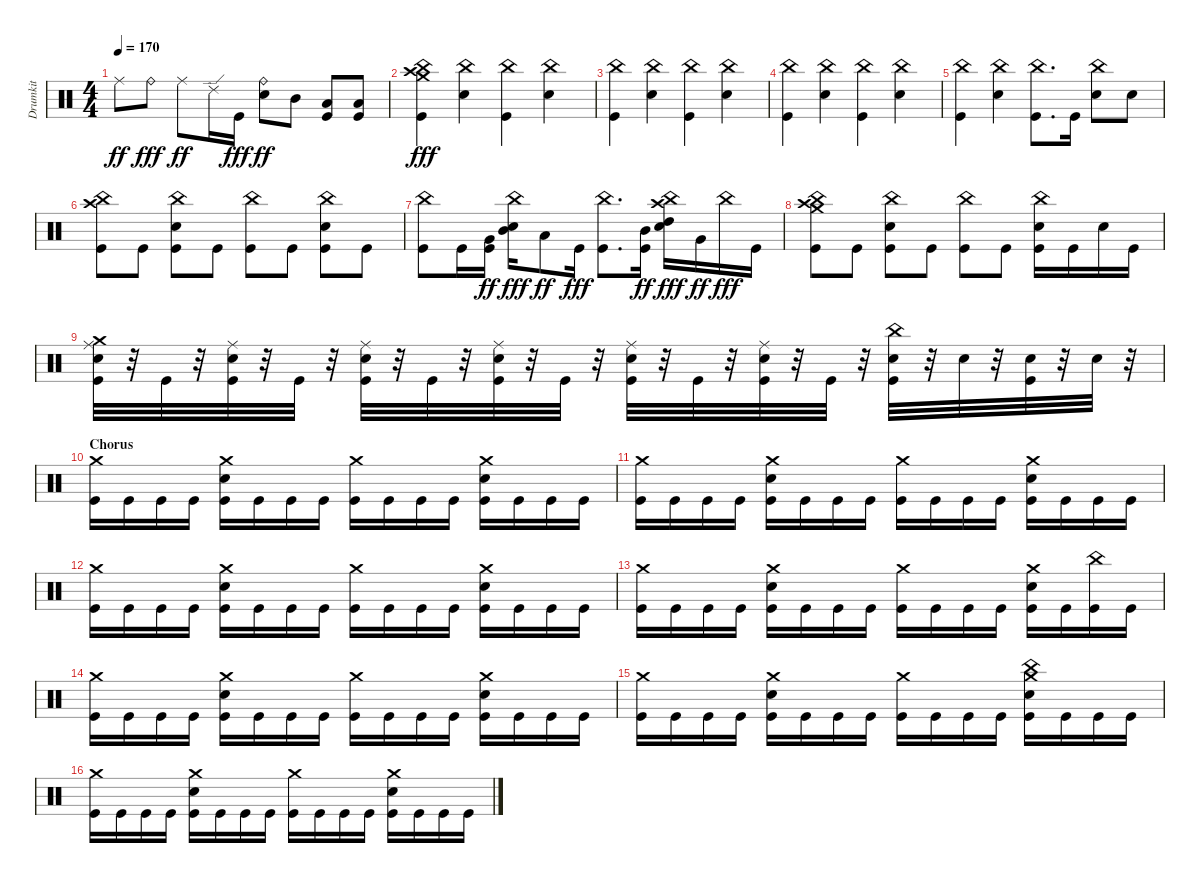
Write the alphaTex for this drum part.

\track ("Drumkit" "Drumkit") {instrument percussion}
\staff {score}
\articulation defaults
\ts (4 4)
\tempo 170
\clef neutral
\ks c "Ride (middle)".8{dy ff} "Ride (bell)".8{dy fff} "Ride (middle)".8{dy ff} "Ride (edge) 2".16 "Kick (hit)".16{dy fff}
("Snare (hit) 2" "Ride (bell)").8{dy ff} "Mid Tom (hit)".8 ("Low Tom (hit)" "Kick (hit)").8 ("Low Tom (hit)" "Kick (hit)").8 |
("China (hit)" "Crash high (hit)" "Crash medium (hit)" "Kick (hit)").4{dy fff} ("China (hit)" "Snare (hit) 2").4 ("China (hit)" "Kick (hit)").4 ("China (hit)" "Snare (hit) 2").4 |
("China (hit)" "Kick (hit)").4 ("China (hit)" "Snare (hit) 2").4 ("China (hit)" "Kick (hit)").4 ("China (hit)" "Snare (hit) 2").4 |
("China (hit)" "Kick (hit)").4 ("China (hit)" "Snare (hit) 2").4 ("China (hit)" "Kick (hit)").4 ("China (hit)" "Snare (hit) 2").4 |
("China (hit)" "Kick (hit)").4 ("China (hit)" "Snare (hit) 2").4 ("China (hit)" "Kick (hit)").8{d} "Kick (hit)".16 ("China (hit)" "Snare (hit) 2").8 "Snare (hit) 2".8 |
("China (hit)" "Crash high (hit)" "Kick (hit)").8 "Kick (hit)".8 ("China (hit)" "Snare (hit) 2" "Kick (hit)").8 "Kick (hit)".8 ("China (hit)" "Kick (hit)").8 "Kick (hit)".8 ("China (hit)" "Snare (hit) 2" "Kick (hit)").8 "Kick (hit)".8 |
("China (hit)" "Kick (hit)").8 "Kick (hit)".16 ("Very Low Tom (hit)" "Kick (hit)").16{dy ff} ("China (hit)" "Mid Tom (hit)" "Snare (hit) 2").16{dy fff} "Low Floor Tom (hit)".8{dy ff} "Kick (hit)".16{dy fff} ("China (hit)" "Kick (hit)").8{d} ("Mid Tom (hit)" "Kick (hit)").16{dy ff} ("China (hit)" "Crash high (hit)" "High Tom (hit)" "Snare (hit) 2").16{dy fff} "Very Low Tom (hit)".16{dy ff} "China (hit)".16{dy fff} "Kick (hit)".16 |
("China (hit)" "Crash high (hit)" "Crash medium (hit)" "Kick (hit)").8 "Kick (hit)".8 ("China (hit)" "Snare (hit) 2" "Kick (hit)").8 "Kick (hit)".8 ("China (hit)" "Kick (hit)").8 "Kick (hit)".8 ("China (hit)" "Snare (hit) 2" "Kick (hit)").16 "Kick (hit)".16 "Snare (hit) 2".16 "Kick (hit)".16 |
("Kick (hit)" "Crash medium (hit)" "Ride (middle)" "Snare (hit) 2").32 r.32 "Kick (hit)".32 r.32 ("Kick (hit)" "Ride (middle)" "Snare (hit) 2").32 r.32 "Kick (hit)".32 r.32 ("Kick (hit)" "Ride (middle)" "Snare (hit) 2").32 r.32 "Kick (hit)".32 r.32 ("Kick (hit)" "Ride (middle)" "Snare (hit) 2").32 r.32 "Kick (hit)".32 r.32 ("Kick (hit)" "Ride (middle)" "Snare (hit) 2").32 r.32 "Kick (hit)".32 r.32 ("Kick (hit)" "Ride (middle)" "Snare (hit) 2").32 r.32 "Kick (hit)".32 r.32 ("Kick (hit)" "Snare (hit) 2" "China (hit)").32 r.32 "Snare (hit) 2".32 r.32 ("Kick (hit)" "Snare (hit) 2").32 r.32 "Snare (hit) 2".32 r.32 |
\section ("" "Chorus")
("Kick (hit)" "Crash medium (hit)").16 "Kick (hit)".16 "Kick (hit)".16 "Kick (hit)".16 ("Kick (hit)" "Snare (hit) 2" "Crash medium (hit)").16 "Kick (hit)".16 "Kick (hit)".16 "Kick (hit)".16 ("Kick (hit)" "Crash medium (hit)").16 "Kick (hit)".16 "Kick (hit)".16 "Kick (hit)".16 ("Kick (hit)" "Snare (hit) 2" "Crash medium (hit)").16 "Kick (hit)".16 "Kick (hit)".16 "Kick (hit)".16 |
("Kick (hit)" "Crash medium (hit)").16 "Kick (hit)".16 "Kick (hit)".16 "Kick (hit)".16 ("Kick (hit)" "Snare (hit) 2" "Crash medium (hit)").16 "Kick (hit)".16 "Kick (hit)".16 "Kick (hit)".16 ("Kick (hit)" "Crash medium (hit)").16 "Kick (hit)".16 "Kick (hit)".16 "Kick (hit)".16 ("Kick (hit)" "Snare (hit) 2" "Crash medium (hit)").16 "Kick (hit)".16 "Kick (hit)".16 "Kick (hit)".16 |
("Kick (hit)" "Crash medium (hit)").16 "Kick (hit)".16 "Kick (hit)".16 "Kick (hit)".16 ("Kick (hit)" "Snare (hit) 2" "Crash medium (hit)").16 "Kick (hit)".16 "Kick (hit)".16 "Kick (hit)".16 ("Kick (hit)" "Crash medium (hit)").16 "Kick (hit)".16 "Kick (hit)".16 "Kick (hit)".16 ("Kick (hit)" "Snare (hit) 2" "Crash medium (hit)").16 "Kick (hit)".16 "Kick (hit)".16 "Kick (hit)".16 |
("Kick (hit)" "Crash medium (hit)").16 "Kick (hit)".16 "Kick (hit)".16 "Kick (hit)".16 ("Kick (hit)" "Snare (hit) 2" "Crash medium (hit)").16 "Kick (hit)".16 "Kick (hit)".16 "Kick (hit)".16 ("Kick (hit)" "Crash medium (hit)").16 "Kick (hit)".16 "Kick (hit)".16 "Kick (hit)".16 ("Kick (hit)" "Snare (hit) 2" "Crash medium (hit)").16 "Kick (hit)".16 ("Kick (hit)" "China (hit)").16 "Kick (hit)".16 |
("Crash medium (hit)" "Kick (hit)").16 "Kick (hit)".16 "Kick (hit)".16 "Kick (hit)".16 ("Kick (hit)" "Snare (hit) 2" "Crash medium (hit)").16 "Kick (hit)".16 "Kick (hit)".16 "Kick (hit)".16 ("Kick (hit)" "Crash medium (hit)").16 "Kick (hit)".16 "Kick (hit)".16 "Kick (hit)".16 ("Kick (hit)" "Snare (hit) 2" "Crash medium (hit)").16 "Kick (hit)".16 "Kick (hit)".16 "Kick (hit)".16 |
("Kick (hit)" "Crash medium (hit)").16 "Kick (hit)".16 "Kick (hit)".16 "Kick (hit)".16 ("Kick (hit)" "Snare (hit) 2" "Crash medium (hit)").16 "Kick (hit)".16 "Kick (hit)".16 "Kick (hit)".16 ("Kick (hit)" "Crash medium (hit)").16 "Kick (hit)".16 "Kick (hit)".16 "Kick (hit)".16 ("Kick (hit)" "Snare (hit) 2" "Crash medium (hit)" "China (hit)").16 "Kick (hit)".16 "Kick (hit)".16 "Kick (hit)".16 |
("Kick (hit)" "Crash medium (hit)").16 "Kick (hit)".16 "Kick (hit)".16 "Kick (hit)".16 ("Kick (hit)" "Snare (hit) 2" "Crash medium (hit)").16 "Kick (hit)".16 "Kick (hit)".16 "Kick (hit)".16 ("Kick (hit)" "Crash medium (hit)").16 "Kick (hit)".16 "Kick (hit)".16 "Kick (hit)".16 ("Kick (hit)" "Snare (hit) 2" "Crash medium (hit)").16 "Kick (hit)".16 "Kick (hit)".16 "Kick (hit)".16
